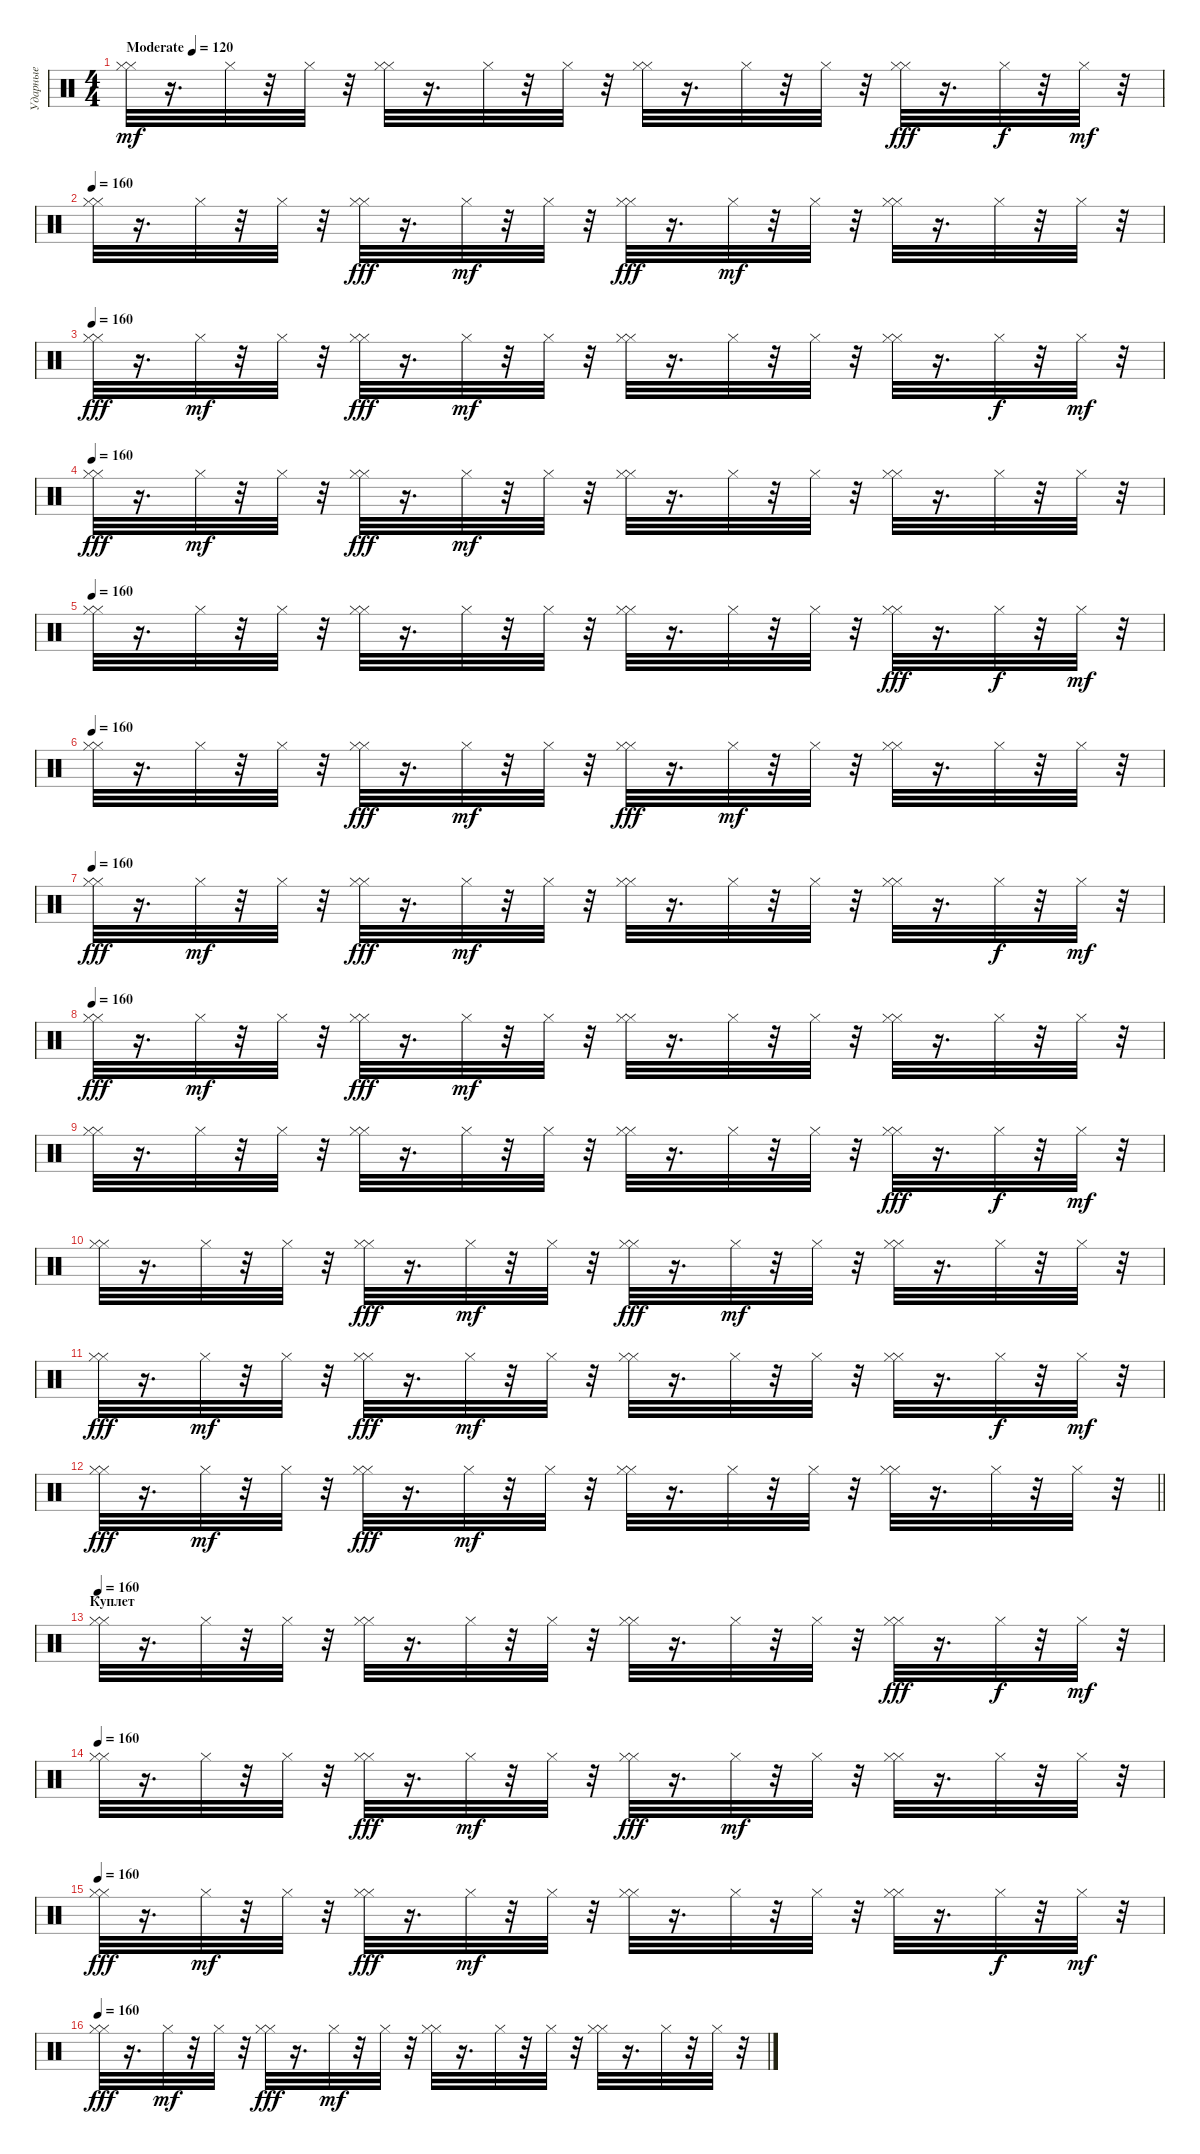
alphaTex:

\track ("Ударные" "Ударные") {instrument percussion}
\staff {score}
\articulation defaults
\ts (4 4)
\tempo (120 "Moderate")
\tempo 160
\tempo (120 "Moderate")
\clef neutral
\ks c
("Hi-Hat (closed)" "Hi-Hat (closed)").32{dy mf} r.16{d} "Hi-Hat (closed)".32 r.32 "Hi-Hat (closed)".32 r.32 ("Hi-Hat (closed)" "Hi-Hat (closed)").32 r.16{d} "Hi-Hat (closed)".32 r.32 "Hi-Hat (closed)".32 r.32 ("Hi-Hat (closed)" "Hi-Hat (closed)").32 r.16{d} "Hi-Hat (closed)".32 r.32 "Hi-Hat (closed)".32 r.32 ("Hi-Hat (closed)" "Hi-Hat (closed)").32{dy fff} r.16{d} "Hi-Hat (closed)".32{dy f} r.32 "Hi-Hat (closed)".32{dy mf} r.32 |
\tempo 160
("Hi-Hat (closed)" "Hi-Hat (closed)").32 r.16{d} "Hi-Hat (closed)".32 r.32 "Hi-Hat (closed)".32 r.32 ("Hi-Hat (closed)" "Hi-Hat (closed)").32{dy fff} r.16{d} "Hi-Hat (closed)".32{dy mf} r.32 "Hi-Hat (closed)".32 r.32 ("Hi-Hat (closed)" "Hi-Hat (closed)").32{dy fff} r.16{d} "Hi-Hat (closed)".32{dy mf} r.32 "Hi-Hat (closed)".32 r.32 ("Hi-Hat (closed)" "Hi-Hat (closed)").32 r.16{d} "Hi-Hat (closed)".32 r.32 "Hi-Hat (closed)".32 r.32 |
\tempo 160
("Hi-Hat (closed)" "Hi-Hat (closed)").32{dy fff} r.16{d} "Hi-Hat (closed)".32{dy mf} r.32 "Hi-Hat (closed)".32 r.32 ("Hi-Hat (closed)" "Hi-Hat (closed)").32{dy fff} r.16{d} "Hi-Hat (closed)".32{dy mf} r.32 "Hi-Hat (closed)".32 r.32 ("Hi-Hat (closed)" "Hi-Hat (closed)").32 r.16{d} "Hi-Hat (closed)".32 r.32 "Hi-Hat (closed)".32 r.32 ("Hi-Hat (closed)" "Hi-Hat (closed)").32 r.16{d} "Hi-Hat (closed)".32{dy f} r.32 "Hi-Hat (closed)".32{dy mf} r.32 |
\tempo 160
("Hi-Hat (closed)" "Hi-Hat (closed)").32{dy fff} r.16{d} "Hi-Hat (closed)".32{dy mf} r.32 "Hi-Hat (closed)".32 r.32 ("Hi-Hat (closed)" "Hi-Hat (closed)").32{dy fff} r.16{d} "Hi-Hat (closed)".32{dy mf} r.32 "Hi-Hat (closed)".32 r.32 ("Hi-Hat (closed)" "Hi-Hat (closed)").32 r.16{d} "Hi-Hat (closed)".32 r.32 "Hi-Hat (closed)".32 r.32 ("Hi-Hat (closed)" "Hi-Hat (closed)").32 r.16{d} "Hi-Hat (closed)".32 r.32 "Hi-Hat (closed)".32 r.32 |
\tempo 160
("Hi-Hat (closed)" "Hi-Hat (closed)").32 r.16{d} "Hi-Hat (closed)".32 r.32 "Hi-Hat (closed)".32 r.32 ("Hi-Hat (closed)" "Hi-Hat (closed)").32 r.16{d} "Hi-Hat (closed)".32 r.32 "Hi-Hat (closed)".32 r.32 ("Hi-Hat (closed)" "Hi-Hat (closed)").32 r.16{d} "Hi-Hat (closed)".32 r.32 "Hi-Hat (closed)".32 r.32 ("Hi-Hat (closed)" "Hi-Hat (closed)").32{dy fff} r.16{d} "Hi-Hat (closed)".32{dy f} r.32 "Hi-Hat (closed)".32{dy mf} r.32 |
\tempo 160
("Hi-Hat (closed)" "Hi-Hat (closed)").32 r.16{d} "Hi-Hat (closed)".32 r.32 "Hi-Hat (closed)".32 r.32 ("Hi-Hat (closed)" "Hi-Hat (closed)").32{dy fff} r.16{d} "Hi-Hat (closed)".32{dy mf} r.32 "Hi-Hat (closed)".32 r.32 ("Hi-Hat (closed)" "Hi-Hat (closed)").32{dy fff} r.16{d} "Hi-Hat (closed)".32{dy mf} r.32 "Hi-Hat (closed)".32 r.32 ("Hi-Hat (closed)" "Hi-Hat (closed)").32 r.16{d} "Hi-Hat (closed)".32 r.32 "Hi-Hat (closed)".32 r.32 |
\tempo 160
("Hi-Hat (closed)" "Hi-Hat (closed)").32{dy fff} r.16{d} "Hi-Hat (closed)".32{dy mf} r.32 "Hi-Hat (closed)".32 r.32 ("Hi-Hat (closed)" "Hi-Hat (closed)").32{dy fff} r.16{d} "Hi-Hat (closed)".32{dy mf} r.32 "Hi-Hat (closed)".32 r.32 ("Hi-Hat (closed)" "Hi-Hat (closed)").32 r.16{d} "Hi-Hat (closed)".32 r.32 "Hi-Hat (closed)".32 r.32 ("Hi-Hat (closed)" "Hi-Hat (closed)").32 r.16{d} "Hi-Hat (closed)".32{dy f} r.32 "Hi-Hat (closed)".32{dy mf} r.32 |
\tempo 160
("Hi-Hat (closed)" "Hi-Hat (closed)").32{dy fff} r.16{d} "Hi-Hat (closed)".32{dy mf} r.32 "Hi-Hat (closed)".32 r.32 ("Hi-Hat (closed)" "Hi-Hat (closed)").32{dy fff} r.16{d} "Hi-Hat (closed)".32{dy mf} r.32 "Hi-Hat (closed)".32 r.32 ("Hi-Hat (closed)" "Hi-Hat (closed)").32 r.16{d} "Hi-Hat (closed)".32 r.32 "Hi-Hat (closed)".32 r.32 ("Hi-Hat (closed)" "Hi-Hat (closed)").32 r.16{d} "Hi-Hat (closed)".32 r.32 "Hi-Hat (closed)".32 r.32 |
("Hi-Hat (closed)" "Hi-Hat (closed)").32 r.16{d} "Hi-Hat (closed)".32 r.32 "Hi-Hat (closed)".32 r.32 ("Hi-Hat (closed)" "Hi-Hat (closed)").32 r.16{d} "Hi-Hat (closed)".32 r.32 "Hi-Hat (closed)".32 r.32 ("Hi-Hat (closed)" "Hi-Hat (closed)").32 r.16{d} "Hi-Hat (closed)".32 r.32 "Hi-Hat (closed)".32 r.32 ("Hi-Hat (closed)" "Hi-Hat (closed)").32{dy fff} r.16{d} "Hi-Hat (closed)".32{dy f} r.32 "Hi-Hat (closed)".32{dy mf} r.32 |
("Hi-Hat (closed)" "Hi-Hat (closed)").32 r.16{d} "Hi-Hat (closed)".32 r.32 "Hi-Hat (closed)".32 r.32 ("Hi-Hat (closed)" "Hi-Hat (closed)").32{dy fff} r.16{d} "Hi-Hat (closed)".32{dy mf} r.32 "Hi-Hat (closed)".32 r.32 ("Hi-Hat (closed)" "Hi-Hat (closed)").32{dy fff} r.16{d} "Hi-Hat (closed)".32{dy mf} r.32 "Hi-Hat (closed)".32 r.32 ("Hi-Hat (closed)" "Hi-Hat (closed)").32 r.16{d} "Hi-Hat (closed)".32 r.32 "Hi-Hat (closed)".32 r.32 |
("Hi-Hat (closed)" "Hi-Hat (closed)").32{dy fff} r.16{d} "Hi-Hat (closed)".32{dy mf} r.32 "Hi-Hat (closed)".32 r.32 ("Hi-Hat (closed)" "Hi-Hat (closed)").32{dy fff} r.16{d} "Hi-Hat (closed)".32{dy mf} r.32 "Hi-Hat (closed)".32 r.32 ("Hi-Hat (closed)" "Hi-Hat (closed)").32 r.16{d} "Hi-Hat (closed)".32 r.32 "Hi-Hat (closed)".32 r.32 ("Hi-Hat (closed)" "Hi-Hat (closed)").32 r.16{d} "Hi-Hat (closed)".32{dy f} r.32 "Hi-Hat (closed)".32{dy mf} r.32 |
\barLineRight lightlight
("Hi-Hat (closed)" "Hi-Hat (closed)").32{dy fff} r.16{d} "Hi-Hat (closed)".32{dy mf} r.32 "Hi-Hat (closed)".32 r.32 ("Hi-Hat (closed)" "Hi-Hat (closed)").32{dy fff} r.16{d} "Hi-Hat (closed)".32{dy mf} r.32 "Hi-Hat (closed)".32 r.32 ("Hi-Hat (closed)" "Hi-Hat (closed)").32 r.16{d} "Hi-Hat (closed)".32 r.32 "Hi-Hat (closed)".32 r.32 ("Hi-Hat (closed)" "Hi-Hat (closed)").32 r.16{d} "Hi-Hat (closed)".32 r.32 "Hi-Hat (closed)".32 r.32 |
\section ("" "Куплет")
\tempo 160
("Hi-Hat (closed)" "Hi-Hat (closed)").32 r.16{d} "Hi-Hat (closed)".32 r.32 "Hi-Hat (closed)".32 r.32 ("Hi-Hat (closed)" "Hi-Hat (closed)").32 r.16{d} "Hi-Hat (closed)".32 r.32 "Hi-Hat (closed)".32 r.32 ("Hi-Hat (closed)" "Hi-Hat (closed)").32 r.16{d} "Hi-Hat (closed)".32 r.32 "Hi-Hat (closed)".32 r.32 ("Hi-Hat (closed)" "Hi-Hat (closed)").32{dy fff} r.16{d} "Hi-Hat (closed)".32{dy f} r.32 "Hi-Hat (closed)".32{dy mf} r.32 |
\tempo 160
("Hi-Hat (closed)" "Hi-Hat (closed)").32 r.16{d} "Hi-Hat (closed)".32 r.32 "Hi-Hat (closed)".32 r.32 ("Hi-Hat (closed)" "Hi-Hat (closed)").32{dy fff} r.16{d} "Hi-Hat (closed)".32{dy mf} r.32 "Hi-Hat (closed)".32 r.32 ("Hi-Hat (closed)" "Hi-Hat (closed)").32{dy fff} r.16{d} "Hi-Hat (closed)".32{dy mf} r.32 "Hi-Hat (closed)".32 r.32 ("Hi-Hat (closed)" "Hi-Hat (closed)").32 r.16{d} "Hi-Hat (closed)".32 r.32 "Hi-Hat (closed)".32 r.32 |
\tempo 160
("Hi-Hat (closed)" "Hi-Hat (closed)").32{dy fff} r.16{d} "Hi-Hat (closed)".32{dy mf} r.32 "Hi-Hat (closed)".32 r.32 ("Hi-Hat (closed)" "Hi-Hat (closed)").32{dy fff} r.16{d} "Hi-Hat (closed)".32{dy mf} r.32 "Hi-Hat (closed)".32 r.32 ("Hi-Hat (closed)" "Hi-Hat (closed)").32 r.16{d} "Hi-Hat (closed)".32 r.32 "Hi-Hat (closed)".32 r.32 ("Hi-Hat (closed)" "Hi-Hat (closed)").32 r.16{d} "Hi-Hat (closed)".32{dy f} r.32 "Hi-Hat (closed)".32{dy mf} r.32 |
\tempo 160
("Hi-Hat (closed)" "Hi-Hat (closed)").32{dy fff} r.16{d} "Hi-Hat (closed)".32{dy mf} r.32 "Hi-Hat (closed)".32 r.32 ("Hi-Hat (closed)" "Hi-Hat (closed)").32{dy fff} r.16{d} "Hi-Hat (closed)".32{dy mf} r.32 "Hi-Hat (closed)".32 r.32 ("Hi-Hat (closed)" "Hi-Hat (closed)").32 r.16{d} "Hi-Hat (closed)".32 r.32 "Hi-Hat (closed)".32 r.32 ("Hi-Hat (closed)" "Hi-Hat (closed)").32 r.16{d} "Hi-Hat (closed)".32 r.32 "Hi-Hat (closed)".32 r.32
